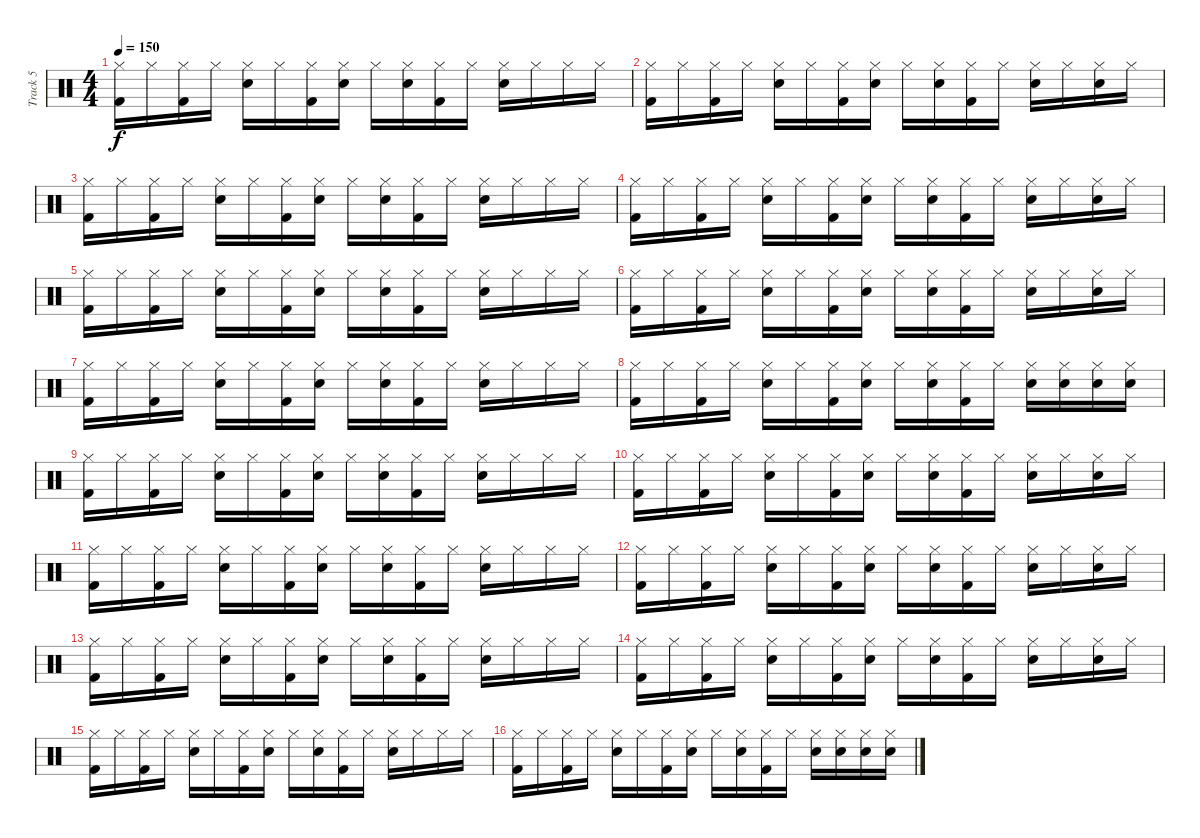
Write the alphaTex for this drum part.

\track ("Track 5" "Track 5") {instrument percussion}
\staff {score}
\articulation defaults
\ts (4 4)
\tempo 150
\clef neutral
\ks c
("Hi-Hat (closed)" "Kick (hit) 2").16{dy f} "Hi-Hat (closed)".16 ("Hi-Hat (closed)" "Kick (hit) 2").16 "Hi-Hat (closed)".16 ("Hi-Hat (closed)" "Snare (hit) 2").16 "Hi-Hat (closed)".16 ("Hi-Hat (closed)" "Kick (hit) 2").16 ("Hi-Hat (closed)" "Snare (hit) 2").16 "Hi-Hat (closed)".16 ("Hi-Hat (closed)" "Snare (hit) 2").16 ("Hi-Hat (closed)" "Kick (hit) 2").16 "Hi-Hat (closed)".16 ("Hi-Hat (closed)" "Snare (hit) 2").16 "Hi-Hat (closed)".16 "Hi-Hat (closed)".16 "Hi-Hat (closed)".16 |
("Hi-Hat (closed)" "Kick (hit) 2").16 "Hi-Hat (closed)".16 ("Hi-Hat (closed)" "Kick (hit) 2").16 "Hi-Hat (closed)".16 ("Hi-Hat (closed)" "Snare (hit) 2").16 "Hi-Hat (closed)".16 ("Hi-Hat (closed)" "Kick (hit) 2").16 ("Hi-Hat (closed)" "Snare (hit) 2").16 "Hi-Hat (closed)".16 ("Hi-Hat (closed)" "Snare (hit) 2").16 ("Hi-Hat (closed)" "Kick (hit) 2").16 "Hi-Hat (closed)".16 ("Hi-Hat (closed)" "Snare (hit) 2").16 "Hi-Hat (closed)".16 ("Hi-Hat (closed)" "Snare (hit) 2").16 "Hi-Hat (closed)".16 |
("Hi-Hat (closed)" "Kick (hit) 2").16 "Hi-Hat (closed)".16 ("Hi-Hat (closed)" "Kick (hit) 2").16 "Hi-Hat (closed)".16 ("Hi-Hat (closed)" "Snare (hit) 2").16 "Hi-Hat (closed)".16 ("Hi-Hat (closed)" "Kick (hit) 2").16 ("Hi-Hat (closed)" "Snare (hit) 2").16 "Hi-Hat (closed)".16 ("Hi-Hat (closed)" "Snare (hit) 2").16 ("Hi-Hat (closed)" "Kick (hit) 2").16 "Hi-Hat (closed)".16 ("Hi-Hat (closed)" "Snare (hit) 2").16 "Hi-Hat (closed)".16 "Hi-Hat (closed)".16 "Hi-Hat (closed)".16 |
("Hi-Hat (closed)" "Kick (hit) 2").16 "Hi-Hat (closed)".16 ("Hi-Hat (closed)" "Kick (hit) 2").16 "Hi-Hat (closed)".16 ("Hi-Hat (closed)" "Snare (hit) 2").16 "Hi-Hat (closed)".16 ("Hi-Hat (closed)" "Kick (hit) 2").16 ("Hi-Hat (closed)" "Snare (hit) 2").16 "Hi-Hat (closed)".16 ("Hi-Hat (closed)" "Snare (hit) 2").16 ("Hi-Hat (closed)" "Kick (hit) 2").16 "Hi-Hat (closed)".16 ("Hi-Hat (closed)" "Snare (hit) 2").16 "Hi-Hat (closed)".16 ("Hi-Hat (closed)" "Snare (hit) 2").16 "Hi-Hat (closed)".16 |
("Hi-Hat (closed)" "Kick (hit) 2").16 "Hi-Hat (closed)".16 ("Hi-Hat (closed)" "Kick (hit) 2").16 "Hi-Hat (closed)".16 ("Hi-Hat (closed)" "Snare (hit) 2").16 "Hi-Hat (closed)".16 ("Hi-Hat (closed)" "Kick (hit) 2").16 ("Hi-Hat (closed)" "Snare (hit) 2").16 "Hi-Hat (closed)".16 ("Hi-Hat (closed)" "Snare (hit) 2").16 ("Hi-Hat (closed)" "Kick (hit) 2").16 "Hi-Hat (closed)".16 ("Hi-Hat (closed)" "Snare (hit) 2").16 "Hi-Hat (closed)".16 "Hi-Hat (closed)".16 "Hi-Hat (closed)".16 |
("Hi-Hat (closed)" "Kick (hit) 2").16 "Hi-Hat (closed)".16 ("Hi-Hat (closed)" "Kick (hit) 2").16 "Hi-Hat (closed)".16 ("Hi-Hat (closed)" "Snare (hit) 2").16 "Hi-Hat (closed)".16 ("Hi-Hat (closed)" "Kick (hit) 2").16 ("Hi-Hat (closed)" "Snare (hit) 2").16 "Hi-Hat (closed)".16 ("Hi-Hat (closed)" "Snare (hit) 2").16 ("Hi-Hat (closed)" "Kick (hit) 2").16 "Hi-Hat (closed)".16 ("Hi-Hat (closed)" "Snare (hit) 2").16 "Hi-Hat (closed)".16 ("Hi-Hat (closed)" "Snare (hit) 2").16 "Hi-Hat (closed)".16 |
("Hi-Hat (closed)" "Kick (hit) 2").16 "Hi-Hat (closed)".16 ("Hi-Hat (closed)" "Kick (hit) 2").16 "Hi-Hat (closed)".16 ("Hi-Hat (closed)" "Snare (hit) 2").16 "Hi-Hat (closed)".16 ("Hi-Hat (closed)" "Kick (hit) 2").16 ("Hi-Hat (closed)" "Snare (hit) 2").16 "Hi-Hat (closed)".16 ("Hi-Hat (closed)" "Snare (hit) 2").16 ("Hi-Hat (closed)" "Kick (hit) 2").16 "Hi-Hat (closed)".16 ("Hi-Hat (closed)" "Snare (hit) 2").16 "Hi-Hat (closed)".16 "Hi-Hat (closed)".16 "Hi-Hat (closed)".16 |
("Hi-Hat (closed)" "Kick (hit) 2").16 "Hi-Hat (closed)".16 ("Hi-Hat (closed)" "Kick (hit) 2").16 "Hi-Hat (closed)".16 ("Hi-Hat (closed)" "Snare (hit) 2").16 "Hi-Hat (closed)".16 ("Hi-Hat (closed)" "Kick (hit) 2").16 ("Hi-Hat (closed)" "Snare (hit) 2").16 "Hi-Hat (closed)".16 ("Hi-Hat (closed)" "Snare (hit) 2").16 ("Hi-Hat (closed)" "Kick (hit) 2").16 "Hi-Hat (closed)".16 ("Hi-Hat (closed)" "Snare (hit) 2").16 ("Hi-Hat (closed)" "Snare (hit) 2").16 ("Hi-Hat (closed)" "Snare (hit) 2").16 ("Hi-Hat (closed)" "Snare (hit) 2").16 |
("Hi-Hat (closed)" "Kick (hit) 2").16 "Hi-Hat (closed)".16 ("Hi-Hat (closed)" "Kick (hit) 2").16 "Hi-Hat (closed)".16 ("Hi-Hat (closed)" "Snare (hit) 2").16 "Hi-Hat (closed)".16 ("Hi-Hat (closed)" "Kick (hit) 2").16 ("Hi-Hat (closed)" "Snare (hit) 2").16 "Hi-Hat (closed)".16 ("Hi-Hat (closed)" "Snare (hit) 2").16 ("Hi-Hat (closed)" "Kick (hit) 2").16 "Hi-Hat (closed)".16 ("Hi-Hat (closed)" "Snare (hit) 2").16 "Hi-Hat (closed)".16 "Hi-Hat (closed)".16 "Hi-Hat (closed)".16 |
("Hi-Hat (closed)" "Kick (hit) 2").16 "Hi-Hat (closed)".16 ("Hi-Hat (closed)" "Kick (hit) 2").16 "Hi-Hat (closed)".16 ("Hi-Hat (closed)" "Snare (hit) 2").16 "Hi-Hat (closed)".16 ("Hi-Hat (closed)" "Kick (hit) 2").16 ("Hi-Hat (closed)" "Snare (hit) 2").16 "Hi-Hat (closed)".16 ("Hi-Hat (closed)" "Snare (hit) 2").16 ("Hi-Hat (closed)" "Kick (hit) 2").16 "Hi-Hat (closed)".16 ("Hi-Hat (closed)" "Snare (hit) 2").16 "Hi-Hat (closed)".16 ("Hi-Hat (closed)" "Snare (hit) 2").16 "Hi-Hat (closed)".16 |
("Hi-Hat (closed)" "Kick (hit) 2").16 "Hi-Hat (closed)".16 ("Hi-Hat (closed)" "Kick (hit) 2").16 "Hi-Hat (closed)".16 ("Hi-Hat (closed)" "Snare (hit) 2").16 "Hi-Hat (closed)".16 ("Hi-Hat (closed)" "Kick (hit) 2").16 ("Hi-Hat (closed)" "Snare (hit) 2").16 "Hi-Hat (closed)".16 ("Hi-Hat (closed)" "Snare (hit) 2").16 ("Hi-Hat (closed)" "Kick (hit) 2").16 "Hi-Hat (closed)".16 ("Hi-Hat (closed)" "Snare (hit) 2").16 "Hi-Hat (closed)".16 "Hi-Hat (closed)".16 "Hi-Hat (closed)".16 |
("Hi-Hat (closed)" "Kick (hit) 2").16 "Hi-Hat (closed)".16 ("Hi-Hat (closed)" "Kick (hit) 2").16 "Hi-Hat (closed)".16 ("Hi-Hat (closed)" "Snare (hit) 2").16 "Hi-Hat (closed)".16 ("Hi-Hat (closed)" "Kick (hit) 2").16 ("Hi-Hat (closed)" "Snare (hit) 2").16 "Hi-Hat (closed)".16 ("Hi-Hat (closed)" "Snare (hit) 2").16 ("Hi-Hat (closed)" "Kick (hit) 2").16 "Hi-Hat (closed)".16 ("Hi-Hat (closed)" "Snare (hit) 2").16 "Hi-Hat (closed)".16 ("Hi-Hat (closed)" "Snare (hit) 2").16 "Hi-Hat (closed)".16 |
("Hi-Hat (closed)" "Kick (hit) 2").16 "Hi-Hat (closed)".16 ("Hi-Hat (closed)" "Kick (hit) 2").16 "Hi-Hat (closed)".16 ("Hi-Hat (closed)" "Snare (hit) 2").16 "Hi-Hat (closed)".16 ("Hi-Hat (closed)" "Kick (hit) 2").16 ("Hi-Hat (closed)" "Snare (hit) 2").16 "Hi-Hat (closed)".16 ("Hi-Hat (closed)" "Snare (hit) 2").16 ("Hi-Hat (closed)" "Kick (hit) 2").16 "Hi-Hat (closed)".16 ("Hi-Hat (closed)" "Snare (hit) 2").16 "Hi-Hat (closed)".16 "Hi-Hat (closed)".16 "Hi-Hat (closed)".16 |
("Hi-Hat (closed)" "Kick (hit) 2").16 "Hi-Hat (closed)".16 ("Hi-Hat (closed)" "Kick (hit) 2").16 "Hi-Hat (closed)".16 ("Hi-Hat (closed)" "Snare (hit) 2").16 "Hi-Hat (closed)".16 ("Hi-Hat (closed)" "Kick (hit) 2").16 ("Hi-Hat (closed)" "Snare (hit) 2").16 "Hi-Hat (closed)".16 ("Hi-Hat (closed)" "Snare (hit) 2").16 ("Hi-Hat (closed)" "Kick (hit) 2").16 "Hi-Hat (closed)".16 ("Hi-Hat (closed)" "Snare (hit) 2").16 "Hi-Hat (closed)".16 ("Hi-Hat (closed)" "Snare (hit) 2").16 "Hi-Hat (closed)".16 |
("Hi-Hat (closed)" "Kick (hit) 2").16 "Hi-Hat (closed)".16 ("Hi-Hat (closed)" "Kick (hit) 2").16 "Hi-Hat (closed)".16 ("Hi-Hat (closed)" "Snare (hit) 2").16 "Hi-Hat (closed)".16 ("Hi-Hat (closed)" "Kick (hit) 2").16 ("Hi-Hat (closed)" "Snare (hit) 2").16 "Hi-Hat (closed)".16 ("Hi-Hat (closed)" "Snare (hit) 2").16 ("Hi-Hat (closed)" "Kick (hit) 2").16 "Hi-Hat (closed)".16 ("Hi-Hat (closed)" "Snare (hit) 2").16 "Hi-Hat (closed)".16 "Hi-Hat (closed)".16 "Hi-Hat (closed)".16 |
("Hi-Hat (closed)" "Kick (hit) 2").16 "Hi-Hat (closed)".16 ("Hi-Hat (closed)" "Kick (hit) 2").16 "Hi-Hat (closed)".16 ("Hi-Hat (closed)" "Snare (hit) 2").16 "Hi-Hat (closed)".16 ("Hi-Hat (closed)" "Kick (hit) 2").16 ("Hi-Hat (closed)" "Snare (hit) 2").16 "Hi-Hat (closed)".16 ("Hi-Hat (closed)" "Snare (hit) 2").16 ("Hi-Hat (closed)" "Kick (hit) 2").16 "Hi-Hat (closed)".16 ("Hi-Hat (closed)" "Snare (hit) 2").16 ("Hi-Hat (closed)" "Snare (hit) 2").16 ("Hi-Hat (closed)" "Snare (hit) 2").16 ("Hi-Hat (closed)" "Snare (hit) 2").16
